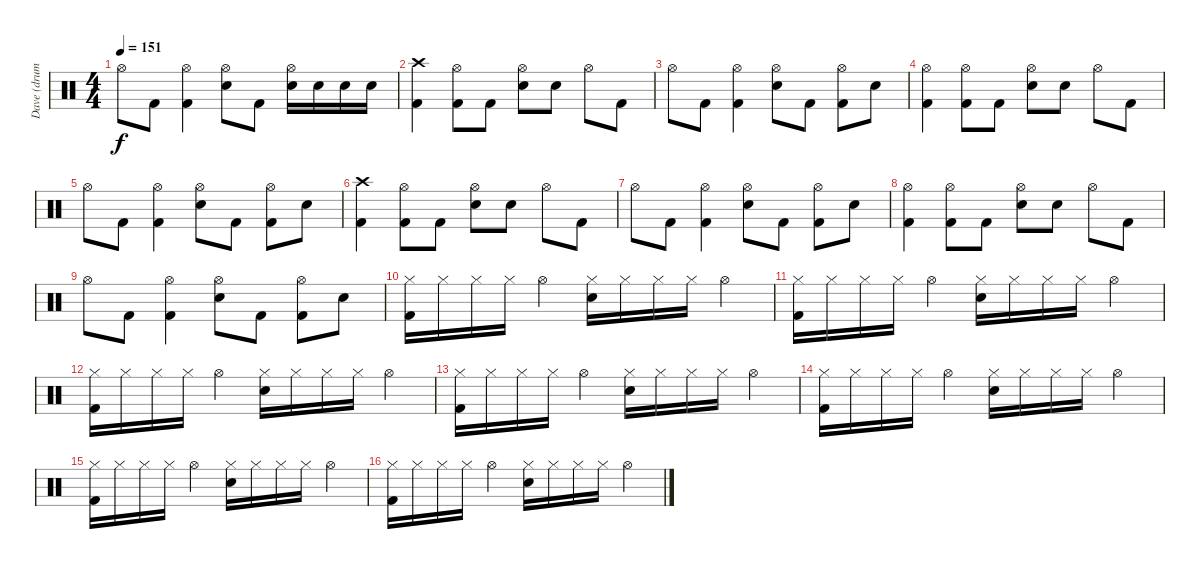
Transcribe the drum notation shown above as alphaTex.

\track ("Dave (drums)" "Dave (drum") {instrument percussion}
\staff {score}
\articulation defaults
\ts (4 4)
\tempo 151
\clef neutral
\ks c "Hi-Hat (open)".8{dy f} "Kick (hit) 2".8
("Hi-Hat (open)" "Kick (hit) 2").4 ("Hi-Hat (open)" "Electric Snare (hit)").8 "Kick (hit) 2".8 ("Hi-Hat (open)" "Electric Snare (hit)").16 "Electric Snare (hit)".16 "Electric Snare (hit)".16 "Electric Snare (hit)".16 |
("Crash high (hit)" "Kick (hit) 2").4 ("Hi-Hat (open)" "Kick (hit) 2").8 "Kick (hit) 2".8 ("Hi-Hat (open)" "Electric Snare (hit)").8 "Electric Snare (hit)".8 "Hi-Hat (open)".8 "Kick (hit) 2".8 |
"Hi-Hat (open)".8 "Kick (hit) 2".8 ("Hi-Hat (open)" "Kick (hit) 2").4 ("Hi-Hat (open)" "Electric Snare (hit)").8 "Kick (hit) 2".8 ("Hi-Hat (open)" "Kick (hit) 2").8 "Electric Snare (hit)".8 |
("Hi-Hat (open)" "Kick (hit) 2").4 ("Hi-Hat (open)" "Kick (hit) 2").8 "Kick (hit) 2".8 ("Hi-Hat (open)" "Electric Snare (hit)").8 "Electric Snare (hit)".8 "Hi-Hat (open)".8 "Kick (hit) 2".8 |
"Hi-Hat (open)".8 "Kick (hit) 2".8 ("Hi-Hat (open)" "Kick (hit) 2").4 ("Hi-Hat (open)" "Electric Snare (hit)").8 "Kick (hit) 2".8 ("Hi-Hat (open)" "Kick (hit) 2").8 "Electric Snare (hit)".8 |
("Crash high (hit)" "Kick (hit) 2").4 ("Hi-Hat (open)" "Kick (hit) 2").8 "Kick (hit) 2".8 ("Hi-Hat (open)" "Electric Snare (hit)").8 "Electric Snare (hit)".8 "Hi-Hat (open)".8 "Kick (hit) 2".8 |
"Hi-Hat (open)".8 "Kick (hit) 2".8 ("Hi-Hat (open)" "Kick (hit) 2").4 ("Hi-Hat (open)" "Electric Snare (hit)").8 "Kick (hit) 2".8 ("Hi-Hat (open)" "Kick (hit) 2").8 "Electric Snare (hit)".8 |
("Hi-Hat (open)" "Kick (hit) 2").4 ("Hi-Hat (open)" "Kick (hit) 2").8 "Kick (hit) 2".8 ("Hi-Hat (open)" "Electric Snare (hit)").8 "Electric Snare (hit)".8 "Hi-Hat (open)".8 "Kick (hit) 2".8 |
"Hi-Hat (open)".8 "Kick (hit) 2".8 ("Hi-Hat (open)" "Kick (hit) 2").4 ("Hi-Hat (open)" "Electric Snare (hit)").8 "Kick (hit) 2".8 ("Hi-Hat (open)" "Kick (hit) 2").8 "Electric Snare (hit)".8 |
("Hi-Hat (closed)" "Kick (hit) 2").16 "Hi-Hat (closed)".16 "Hi-Hat (closed)".16 "Hi-Hat (closed)".16 "Hi-Hat (open)".4 ("Hi-Hat (closed)" "Electric Snare (hit)").16 "Hi-Hat (closed)".16 "Hi-Hat (closed)".16 "Hi-Hat (closed)".16 "Hi-Hat (open)".4 |
("Hi-Hat (closed)" "Kick (hit) 2").16 "Hi-Hat (closed)".16 "Hi-Hat (closed)".16 "Hi-Hat (closed)".16 "Hi-Hat (open)".4 ("Hi-Hat (closed)" "Electric Snare (hit)").16 "Hi-Hat (closed)".16 "Hi-Hat (closed)".16 "Hi-Hat (closed)".16 "Hi-Hat (open)".4 |
("Hi-Hat (closed)" "Kick (hit) 2").16 "Hi-Hat (closed)".16 "Hi-Hat (closed)".16 "Hi-Hat (closed)".16 "Hi-Hat (open)".4 ("Hi-Hat (closed)" "Electric Snare (hit)").16 "Hi-Hat (closed)".16 "Hi-Hat (closed)".16 "Hi-Hat (closed)".16 "Hi-Hat (open)".4 |
("Hi-Hat (closed)" "Kick (hit) 2").16 "Hi-Hat (closed)".16 "Hi-Hat (closed)".16 "Hi-Hat (closed)".16 "Hi-Hat (open)".4 ("Hi-Hat (closed)" "Electric Snare (hit)").16 "Hi-Hat (closed)".16 "Hi-Hat (closed)".16 "Hi-Hat (closed)".16 "Hi-Hat (open)".4 |
("Hi-Hat (closed)" "Kick (hit) 2").16 "Hi-Hat (closed)".16 "Hi-Hat (closed)".16 "Hi-Hat (closed)".16 "Hi-Hat (open)".4 ("Hi-Hat (closed)" "Electric Snare (hit)").16 "Hi-Hat (closed)".16 "Hi-Hat (closed)".16 "Hi-Hat (closed)".16 "Hi-Hat (open)".4 |
("Hi-Hat (closed)" "Kick (hit) 2").16 "Hi-Hat (closed)".16 "Hi-Hat (closed)".16 "Hi-Hat (closed)".16 "Hi-Hat (open)".4 ("Hi-Hat (closed)" "Electric Snare (hit)").16 "Hi-Hat (closed)".16 "Hi-Hat (closed)".16 "Hi-Hat (closed)".16 "Hi-Hat (open)".4 |
("Hi-Hat (closed)" "Kick (hit) 2").16 "Hi-Hat (closed)".16 "Hi-Hat (closed)".16 "Hi-Hat (closed)".16 "Hi-Hat (open)".4 ("Hi-Hat (closed)" "Electric Snare (hit)").16 "Hi-Hat (closed)".16 "Hi-Hat (closed)".16 "Hi-Hat (closed)".16 "Hi-Hat (open)".4
